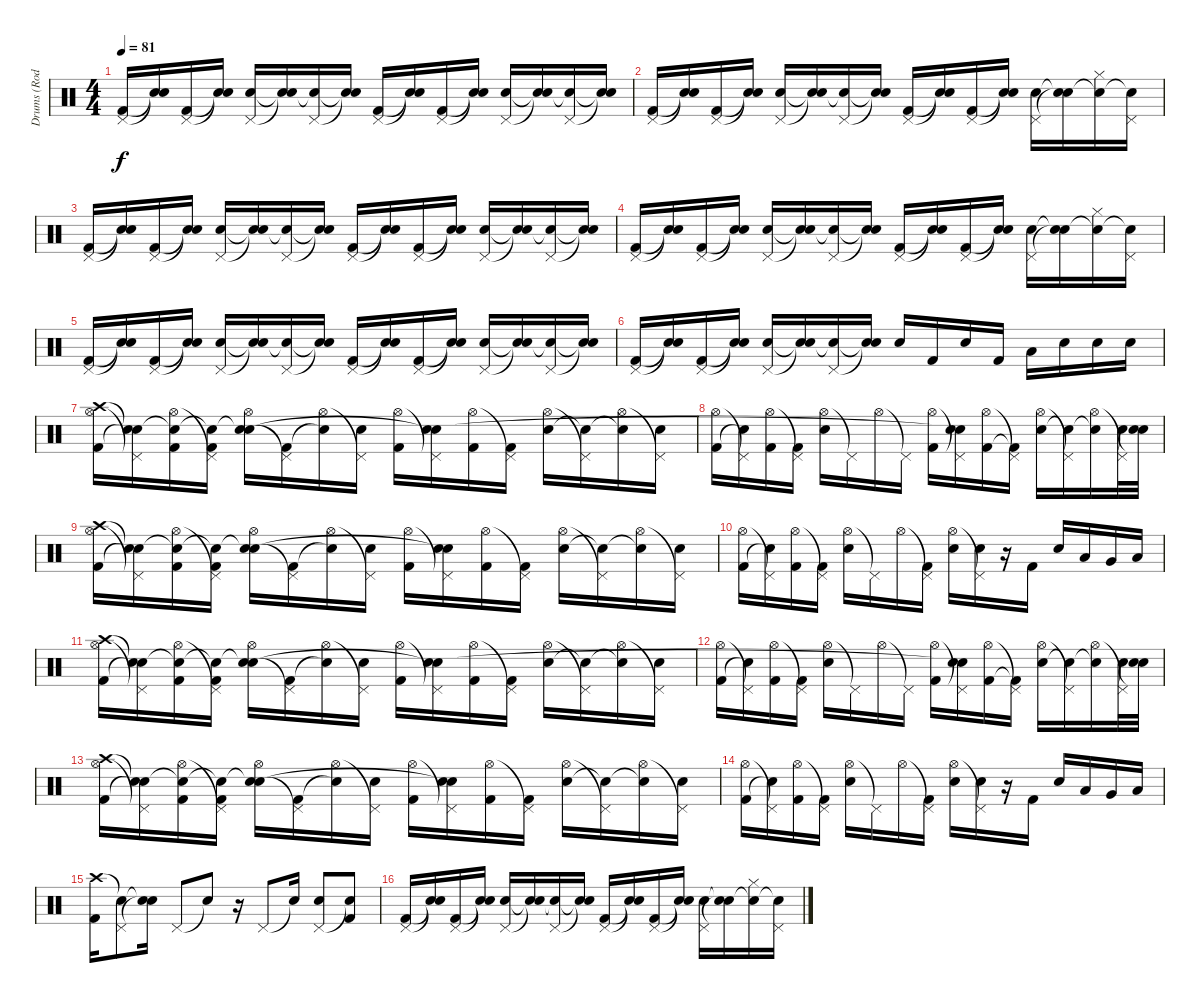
\track ("Drums (Rod Bourdon)" "Drums (Rod") {instrument percussion}
\staff {score}
\articulation defaults
\ts (4 4)
\tempo 81
\clef neutral
\ks c
("Pedal Hi-Hat (hit)" "Kick (hit) 2").16{dy f} ("Snare (hit)"{t} "Snare (hit)"{t}).16 ("Pedal Hi-Hat (hit)" "Kick (hit) 2").16 ("Snare (hit)"{t} "Snare (hit)"{t}).16 ("Pedal Hi-Hat (hit)" "Electric Snare (hit)").16 ("Snare (hit)"{t} "Snare (hit)"{t}).16 ("Pedal Hi-Hat (hit)" "Snare (hit)"{t}).16 ("Snare (hit)"{t} "Snare (hit)"{t}).16 ("Pedal Hi-Hat (hit)" "Kick (hit) 2").16 ("Snare (hit)"{t} "Snare (hit)"{t}).16 ("Pedal Hi-Hat (hit)" "Kick (hit) 2").16 ("Snare (hit)"{t} "Snare (hit)"{t}).16 ("Pedal Hi-Hat (hit)" "Electric Snare (hit)").16 ("Snare (hit)"{t} "Snare (hit)"{t}).16 ("Pedal Hi-Hat (hit)" "Snare (hit)"{t}).16 ("Snare (hit)"{t} "Snare (hit)"{t}).16 |
("Pedal Hi-Hat (hit)" "Kick (hit) 2").16 ("Snare (hit)"{t} "Snare (hit)"{t}).16 ("Pedal Hi-Hat (hit)" "Kick (hit) 2").16 ("Snare (hit)"{t} "Snare (hit)"{t}).16 ("Pedal Hi-Hat (hit)" "Electric Snare (hit)").16 ("Snare (hit)"{t} "Snare (hit)"{t}).16 ("Pedal Hi-Hat (hit)" "Snare (hit)"{t}).16 ("Snare (hit)"{t} "Snare (hit)"{t}).16 ("Pedal Hi-Hat (hit)" "Kick (hit) 2").16 ("Snare (hit)"{t} "Snare (hit)"{t}).16 ("Pedal Hi-Hat (hit)" "Kick (hit) 2").16 ("Snare (hit)"{t} "Snare (hit)"{t}).16 ("Pedal Hi-Hat (hit)" "Electric Snare (hit)").16 ("Snare (hit)"{t} "Snare (hit)"{t}).16 ("Hi-Hat (closed)" "Snare (hit)"{t}).16 ("Pedal Hi-Hat (hit)" "Snare (hit)"{t}).16 |
("Pedal Hi-Hat (hit)" "Kick (hit) 2").16 ("Snare (hit)"{t} "Snare (hit)"{t}).16 ("Pedal Hi-Hat (hit)" "Kick (hit) 2").16 ("Snare (hit)"{t} "Snare (hit)"{t}).16 ("Pedal Hi-Hat (hit)" "Electric Snare (hit)").16 ("Snare (hit)"{t} "Snare (hit)"{t}).16 ("Pedal Hi-Hat (hit)" "Snare (hit)"{t}).16 ("Snare (hit)"{t} "Snare (hit)"{t}).16 ("Pedal Hi-Hat (hit)" "Kick (hit) 2").16 ("Snare (hit)"{t} "Snare (hit)"{t}).16 ("Pedal Hi-Hat (hit)" "Kick (hit) 2").16 ("Snare (hit)"{t} "Snare (hit)"{t}).16 ("Pedal Hi-Hat (hit)" "Electric Snare (hit)").16 ("Snare (hit)"{t} "Snare (hit)"{t}).16 ("Pedal Hi-Hat (hit)" "Snare (hit)"{t}).16 ("Snare (hit)"{t} "Snare (hit)"{t}).16 |
("Pedal Hi-Hat (hit)" "Kick (hit) 2").16 ("Snare (hit)"{t} "Snare (hit)"{t}).16 ("Pedal Hi-Hat (hit)" "Kick (hit) 2").16 ("Snare (hit)"{t} "Snare (hit)"{t}).16 ("Pedal Hi-Hat (hit)" "Electric Snare (hit)").16 ("Snare (hit)"{t} "Snare (hit)"{t}).16 ("Pedal Hi-Hat (hit)" "Snare (hit)"{t}).16 ("Snare (hit)"{t} "Snare (hit)"{t}).16 ("Pedal Hi-Hat (hit)" "Kick (hit) 2").16 ("Snare (hit)"{t} "Snare (hit)"{t}).16 ("Pedal Hi-Hat (hit)" "Kick (hit) 2").16 ("Snare (hit)"{t} "Snare (hit)"{t}).16 ("Pedal Hi-Hat (hit)" "Electric Snare (hit)").16 ("Snare (hit)"{t} "Snare (hit)"{t}).16 ("Hi-Hat (closed)" "Snare (hit)"{t}).16 ("Pedal Hi-Hat (hit)" "Snare (hit)"{t}).16 |
("Pedal Hi-Hat (hit)" "Kick (hit) 2").16 ("Snare (hit)"{t} "Snare (hit)"{t}).16 ("Pedal Hi-Hat (hit)" "Kick (hit) 2").16 ("Snare (hit)"{t} "Snare (hit)"{t}).16 ("Pedal Hi-Hat (hit)" "Electric Snare (hit)").16 ("Snare (hit)"{t} "Snare (hit)"{t}).16 ("Pedal Hi-Hat (hit)" "Snare (hit)"{t}).16 ("Snare (hit)"{t} "Snare (hit)"{t}).16 ("Pedal Hi-Hat (hit)" "Kick (hit) 2").16 ("Snare (hit)"{t} "Snare (hit)"{t}).16 ("Pedal Hi-Hat (hit)" "Kick (hit) 2").16 ("Snare (hit)"{t} "Snare (hit)"{t}).16 ("Pedal Hi-Hat (hit)" "Electric Snare (hit)").16 ("Snare (hit)"{t} "Snare (hit)"{t}).16 ("Pedal Hi-Hat (hit)" "Snare (hit)"{t}).16 ("Snare (hit)"{t} "Snare (hit)"{t}).16 |
("Pedal Hi-Hat (hit)" "Kick (hit) 2").16 ("Snare (hit)"{t} "Snare (hit)"{t}).16 ("Pedal Hi-Hat (hit)" "Kick (hit) 2").16 ("Snare (hit)"{t} "Snare (hit)"{t}).16 ("Pedal Hi-Hat (hit)" "Electric Snare (hit)").16 ("Snare (hit)"{t} "Snare (hit)"{t}).16 ("Pedal Hi-Hat (hit)" "Snare (hit)"{t}).16 ("Snare (hit)"{t} "Snare (hit)"{t}).16 "Electric Snare (hit)".16 "Kick (hit) 2".16 "Electric Snare (hit)".16 "Kick (hit) 2".16 "Low Tom (hit)".16 "Electric Snare (hit)".16 "Electric Snare (hit)".16 "Electric Snare (hit)".16 |
("Crash high (hit)" "Hi-Hat (open)" "Kick (hit) 2").16{volume 13} ("Snare (hit)"{t} "Pedal Hi-Hat (hit)"{t} "Snare (hit)"{t}).16 ("Snare (hit)"{t} "Hi-Hat (open)" "Kick (hit) 2").16 ("Snare (hit)"{t} "Pedal Hi-Hat (hit)"{t} "Kick (hit) 2").16 ("Snare (hit)"{t} "Hi-Hat (open)" "Electric Snare (hit)").16 ("Pedal Hi-Hat (hit)"{t} "Kick (hit) 2").16 ("Hi-Hat (open)" "Snare (hit)"{t}).16 ("Pedal Hi-Hat (hit)"{t} "Electric Snare (hit)").16 ("Hi-Hat (open)" "Kick (hit) 2").16 ("Pedal Hi-Hat (hit)"{t} "Electric Snare (hit)" "Snare (hit)"{t}).16 ("Hi-Hat (open)" "Kick (hit) 2").16 ("Pedal Hi-Hat (hit)"{t} "Kick (hit) 2").16 ("Hi-Hat (open)" "Electric Snare (hit)").16 ("Pedal Hi-Hat (hit)"{t} "Snare (hit)"{t}).16 ("Hi-Hat (open)" "Snare (hit)"{t}).16 ("Pedal Hi-Hat (hit)"{t} "Electric Snare (hit)").16 |
("Hi-Hat (open)" "Kick (hit) 2").16 ("Pedal Hi-Hat (hit)"{t} "Snare (hit)"{t}).16 ("Hi-Hat (open)" "Kick (hit) 2").16 ("Pedal Hi-Hat (hit)"{t} "Kick (hit) 2").16 ("Hi-Hat (open)" "Electric Snare (hit)").16 "Pedal Hi-Hat (hit)"{t}.16 "Hi-Hat (open)".16 "Pedal Hi-Hat (hit)"{t}.16 ("Hi-Hat (open)" "Kick (hit) 2").16 ("Pedal Hi-Hat (hit)"{t} "Electric Snare (hit)" "Snare (hit)"{t}).16 ("Hi-Hat (open)" "Kick (hit) 2").16 ("Pedal Hi-Hat (hit)"{t} "Kick (hit) 2"{t}).16 ("Hi-Hat (open)" "Electric Snare (hit)").16 ("Pedal Hi-Hat (hit)"{t} "Snare (hit)"{t}).16 ("Hi-Hat (open)" "Electric Snare (hit)"{t}).16 ("Pedal Hi-Hat (hit)"{t} "Electric Snare (hit)").32 ("Snare (hit)"{t} "Electric Snare (hit)").32 |
("Crash high (hit)" "Hi-Hat (open)" "Kick (hit) 2").16{volume 13} ("Snare (hit)"{t} "Pedal Hi-Hat (hit)"{t} "Snare (hit)"{t}).16 ("Snare (hit)"{t} "Hi-Hat (open)" "Kick (hit) 2").16 ("Snare (hit)"{t} "Pedal Hi-Hat (hit)"{t} "Kick (hit) 2").16 ("Snare (hit)"{t} "Hi-Hat (open)" "Electric Snare (hit)").16 ("Pedal Hi-Hat (hit)"{t} "Kick (hit) 2").16 ("Hi-Hat (open)" "Snare (hit)"{t}).16 ("Pedal Hi-Hat (hit)"{t} "Electric Snare (hit)").16 ("Hi-Hat (open)" "Kick (hit) 2").16 ("Pedal Hi-Hat (hit)"{t} "Electric Snare (hit)" "Snare (hit)"{t}).16 ("Hi-Hat (open)" "Kick (hit) 2").16 ("Pedal Hi-Hat (hit)"{t} "Kick (hit) 2").16 ("Hi-Hat (open)" "Electric Snare (hit)").16 ("Pedal Hi-Hat (hit)"{t} "Snare (hit)"{t}).16 ("Hi-Hat (open)" "Snare (hit)"{t}).16 ("Pedal Hi-Hat (hit)"{t} "Electric Snare (hit)").16 |
("Hi-Hat (open)" "Kick (hit) 2").16 ("Pedal Hi-Hat (hit)"{t} "Snare (hit)"{t}).16 ("Hi-Hat (open)" "Kick (hit) 2").16 ("Pedal Hi-Hat (hit)"{t} "Kick (hit) 2").16 ("Hi-Hat (open)" "Electric Snare (hit)").16 "Pedal Hi-Hat (hit)"{t}.16 "Hi-Hat (open)".16 ("Pedal Hi-Hat (hit)"{t} "Kick (hit) 2").16 ("Hi-Hat (open)" "Electric Snare (hit)").16 ("Pedal Hi-Hat (hit)"{t} "Electric Snare (hit)").16 r.16 "Kick (hit) 2".16 "Electric Snare (hit)".16 "Low Tom (hit)".16 "Very Low Tom (hit)".16 "Low Floor Tom (hit)".16 |
("Crash high (hit)" "Hi-Hat (open)" "Kick (hit) 2").16{volume 13} ("Snare (hit)"{t} "Pedal Hi-Hat (hit)"{t} "Snare (hit)"{t}).16 ("Snare (hit)"{t} "Hi-Hat (open)" "Kick (hit) 2").16 ("Snare (hit)"{t} "Pedal Hi-Hat (hit)"{t} "Kick (hit) 2").16 ("Snare (hit)"{t} "Hi-Hat (open)" "Electric Snare (hit)").16 ("Pedal Hi-Hat (hit)"{t} "Kick (hit) 2").16 ("Hi-Hat (open)" "Snare (hit)"{t}).16 ("Pedal Hi-Hat (hit)"{t} "Electric Snare (hit)").16 ("Hi-Hat (open)" "Kick (hit) 2").16 ("Pedal Hi-Hat (hit)"{t} "Electric Snare (hit)" "Snare (hit)"{t}).16 ("Hi-Hat (open)" "Kick (hit) 2").16 ("Pedal Hi-Hat (hit)"{t} "Kick (hit) 2").16 ("Hi-Hat (open)" "Electric Snare (hit)").16 ("Pedal Hi-Hat (hit)"{t} "Snare (hit)"{t}).16 ("Hi-Hat (open)" "Snare (hit)"{t}).16 ("Pedal Hi-Hat (hit)"{t} "Electric Snare (hit)").16 |
("Hi-Hat (open)" "Kick (hit) 2").16 ("Pedal Hi-Hat (hit)"{t} "Snare (hit)"{t}).16 ("Hi-Hat (open)" "Kick (hit) 2").16 ("Pedal Hi-Hat (hit)"{t} "Kick (hit) 2").16 ("Hi-Hat (open)" "Electric Snare (hit)").16 "Pedal Hi-Hat (hit)"{t}.16 "Hi-Hat (open)".16 "Pedal Hi-Hat (hit)"{t}.16 ("Hi-Hat (open)" "Kick (hit) 2").16 ("Pedal Hi-Hat (hit)"{t} "Electric Snare (hit)" "Snare (hit)"{t}).16 ("Hi-Hat (open)" "Kick (hit) 2").16 ("Pedal Hi-Hat (hit)"{t} "Kick (hit) 2"{t}).16 ("Hi-Hat (open)" "Electric Snare (hit)").16 ("Pedal Hi-Hat (hit)"{t} "Snare (hit)"{t}).16 ("Hi-Hat (open)" "Electric Snare (hit)"{t}).16 ("Pedal Hi-Hat (hit)"{t} "Electric Snare (hit)").32 ("Snare (hit)"{t} "Electric Snare (hit)").32 |
("Crash high (hit)" "Hi-Hat (open)" "Kick (hit) 2").16 ("Snare (hit)"{t} "Pedal Hi-Hat (hit)"{t} "Snare (hit)"{t}).16 ("Snare (hit)"{t} "Hi-Hat (open)" "Kick (hit) 2").16 ("Snare (hit)"{t} "Pedal Hi-Hat (hit)"{t} "Kick (hit) 2").16 ("Snare (hit)"{t} "Hi-Hat (open)" "Electric Snare (hit)").16 ("Pedal Hi-Hat (hit)"{t} "Kick (hit) 2").16 ("Hi-Hat (open)" "Snare (hit)"{t}).16 ("Pedal Hi-Hat (hit)"{t} "Electric Snare (hit)").16 ("Hi-Hat (open)" "Kick (hit) 2").16 ("Pedal Hi-Hat (hit)"{t} "Electric Snare (hit)" "Snare (hit)"{t}).16 ("Hi-Hat (open)" "Kick (hit) 2").16 ("Pedal Hi-Hat (hit)"{t} "Kick (hit) 2").16 ("Hi-Hat (open)" "Electric Snare (hit)").16 ("Pedal Hi-Hat (hit)"{t} "Snare (hit)"{t}).16 ("Hi-Hat (open)" "Snare (hit)"{t}).16 ("Pedal Hi-Hat (hit)"{t} "Electric Snare (hit)").16 |
("Hi-Hat (open)" "Kick (hit) 2").16 ("Pedal Hi-Hat (hit)"{t} "Snare (hit)"{t}).16 ("Hi-Hat (open)" "Kick (hit) 2").16 ("Pedal Hi-Hat (hit)"{t} "Kick (hit) 2").16 ("Hi-Hat (open)" "Electric Snare (hit)").16 "Pedal Hi-Hat (hit)"{t}.16 "Hi-Hat (open)".16 ("Pedal Hi-Hat (hit)"{t} "Kick (hit) 2").16 ("Hi-Hat (open)" "Electric Snare (hit)").16 ("Pedal Hi-Hat (hit)"{t} "Electric Snare (hit)").16 r.16 "Kick (hit) 2".16 "Electric Snare (hit)".16 "Low Tom (hit)".16 "Very Low Tom (hit)".16 "Low Floor Tom (hit)".16 |
("Crash high (hit)" "Kick (hit) 2").16 ("Snare (hit)"{t} "Pedal Hi-Hat (hit)").8 ("Snare (hit)"{t} "Snare (hit)"{t}).16 "Pedal Hi-Hat (hit)".8 "Snare (hit)"{t}.8 r.16 "Pedal Hi-Hat (hit)".8 "Snare (hit)"{t}.16 ("Pedal Hi-Hat (hit)" "Electric Snare (hit)").8 ("Snare (hit)"{t} "Kick (hit) 2").8 |
("Pedal Hi-Hat (hit)" "Kick (hit) 2").16 ("Snare (hit)"{t} "Snare (hit)"{t}).16 ("Pedal Hi-Hat (hit)" "Kick (hit) 2").16 ("Snare (hit)"{t} "Snare (hit)"{t}).16 ("Pedal Hi-Hat (hit)" "Electric Snare (hit)").16 ("Snare (hit)"{t} "Snare (hit)"{t}).16 ("Pedal Hi-Hat (hit)" "Snare (hit)"{t}).16 ("Snare (hit)"{t} "Snare (hit)"{t}).16 ("Pedal Hi-Hat (hit)" "Kick (hit) 2").16 ("Snare (hit)"{t} "Snare (hit)"{t}).16 ("Pedal Hi-Hat (hit)" "Kick (hit) 2").16 ("Snare (hit)"{t} "Snare (hit)"{t}).16 ("Pedal Hi-Hat (hit)" "Electric Snare (hit)").16 ("Snare (hit)"{t} "Snare (hit)"{t}).16 ("Hi-Hat (closed)" "Snare (hit)"{t}).16 ("Pedal Hi-Hat (hit)" "Snare (hit)"{t}).16
